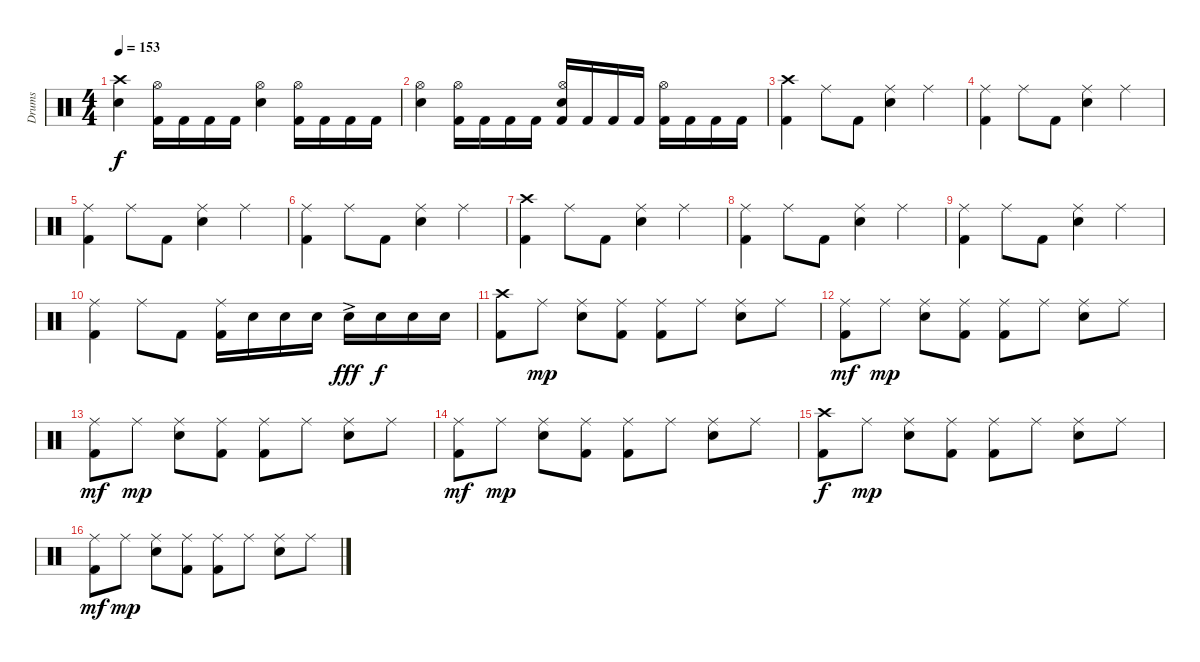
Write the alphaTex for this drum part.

\track ("Drums" "Drums") {instrument percussion}
\staff {score}
\articulation defaults
\ts (4 4)
\tempo 153
\clef neutral
\ks c
("Crash high (hit)" "Electric Snare (hit)").4{dy f} ("Hi-Hat (open)" "Kick (hit) 2").16 "Kick (hit) 2".16 "Kick (hit) 2".16 "Kick (hit) 2".16 ("Hi-Hat (open)" "Electric Snare (hit)").4 ("Hi-Hat (open)" "Kick (hit) 2").16 "Kick (hit) 2".16 "Kick (hit) 2".16 "Kick (hit) 2".16 |
("Hi-Hat (open)" "Electric Snare (hit)").4 ("Hi-Hat (open)" "Kick (hit) 2").16 "Kick (hit) 2".16 "Kick (hit) 2".16 "Kick (hit) 2".16 ("Hi-Hat (open)" "Electric Snare (hit)" "Kick (hit) 2").16 "Kick (hit) 2".16 "Kick (hit) 2".16 "Kick (hit) 2".16 ("Hi-Hat (open)" "Kick (hit) 2").16 "Kick (hit) 2".16 "Kick (hit) 2".16 "Kick (hit) 2".16 |
("Crash high (hit)" "Kick (hit) 2").4 "Ride (middle)".8 "Kick (hit) 2".8 ("Ride (middle)" "Electric Snare (hit)").4 "Ride (middle)".4 |
("Ride (middle)" "Kick (hit) 2").4 "Ride (middle)".8 "Kick (hit) 2".8 ("Ride (middle)" "Electric Snare (hit)").4 "Ride (middle)".4 |
("Ride (middle)" "Kick (hit) 2").4 "Ride (middle)".8 "Kick (hit) 2".8 ("Ride (middle)" "Electric Snare (hit)").4 "Ride (middle)".4 |
("Ride (middle)" "Kick (hit) 2").4 "Ride (middle)".8 "Kick (hit) 2".8 ("Ride (middle)" "Electric Snare (hit)").4 "Ride (middle)".4 |
("Crash high (hit)" "Kick (hit) 2").4 "Ride (middle)".8 "Kick (hit) 2".8 ("Ride (middle)" "Electric Snare (hit)").4 "Ride (middle)".4 |
("Ride (middle)" "Kick (hit) 2").4 "Ride (middle)".8 "Kick (hit) 2".8 ("Ride (middle)" "Electric Snare (hit)").4 "Ride (middle)".4 |
("Ride (middle)" "Kick (hit) 2").4 "Ride (middle)".8 "Kick (hit) 2".8 ("Ride (middle)" "Electric Snare (hit)").4 "Ride (middle)".4 |
("Ride (middle)" "Kick (hit) 2").4 "Ride (middle)".8 "Kick (hit) 2".8 ("Ride (middle)" "Kick (hit) 2").16 "Electric Snare (hit)".16 "Electric Snare (hit)".16 "Electric Snare (hit)".16 "Electric Snare (hit)"{ac}.16{dy fff} "Electric Snare (hit)".16{dy f} "Electric Snare (hit)".16 "Electric Snare (hit)".16 |
("Crash high (hit)" "Kick (hit) 2").8 "Ride (middle)".8{dy mp} ("Ride (middle)" "Electric Snare (hit)").8 ("Ride (middle)" "Kick (hit) 2").8 ("Ride (middle)" "Kick (hit) 2").8 "Ride (middle)".8 ("Ride (middle)" "Electric Snare (hit)").8 "Ride (middle)".8 |
("Ride (middle)" "Kick (hit) 2").8{dy mf} "Ride (middle)".8{dy mp} ("Ride (middle)" "Electric Snare (hit)").8 ("Ride (middle)" "Kick (hit) 2").8 ("Ride (middle)" "Kick (hit) 2").8 "Ride (middle)".8 ("Ride (middle)" "Electric Snare (hit)").8 "Ride (middle)".8 |
("Ride (middle)" "Kick (hit) 2").8{dy mf} "Ride (middle)".8{dy mp} ("Ride (middle)" "Electric Snare (hit)").8 ("Ride (middle)" "Kick (hit) 2").8 ("Ride (middle)" "Kick (hit) 2").8 "Ride (middle)".8 ("Ride (middle)" "Electric Snare (hit)").8 "Ride (middle)".8 |
("Ride (middle)" "Kick (hit) 2").8{dy mf} "Ride (middle)".8{dy mp} ("Ride (middle)" "Electric Snare (hit)").8 ("Ride (middle)" "Kick (hit) 2").8 ("Ride (middle)" "Kick (hit) 2").8 "Ride (middle)".8 ("Ride (middle)" "Electric Snare (hit)").8 "Ride (middle)".8 |
("Crash high (hit)" "Kick (hit) 2").8{dy f} "Ride (middle)".8{dy mp} ("Ride (middle)" "Electric Snare (hit)").8 ("Ride (middle)" "Kick (hit) 2").8 ("Ride (middle)" "Kick (hit) 2").8 "Ride (middle)".8 ("Ride (middle)" "Electric Snare (hit)").8 "Ride (middle)".8 |
("Ride (middle)" "Kick (hit) 2").8{dy mf} "Ride (middle)".8{dy mp} ("Ride (middle)" "Electric Snare (hit)").8 ("Ride (middle)" "Kick (hit) 2").8 ("Ride (middle)" "Kick (hit) 2").8 "Ride (middle)".8 ("Ride (middle)" "Electric Snare (hit)").8 "Ride (middle)".8
